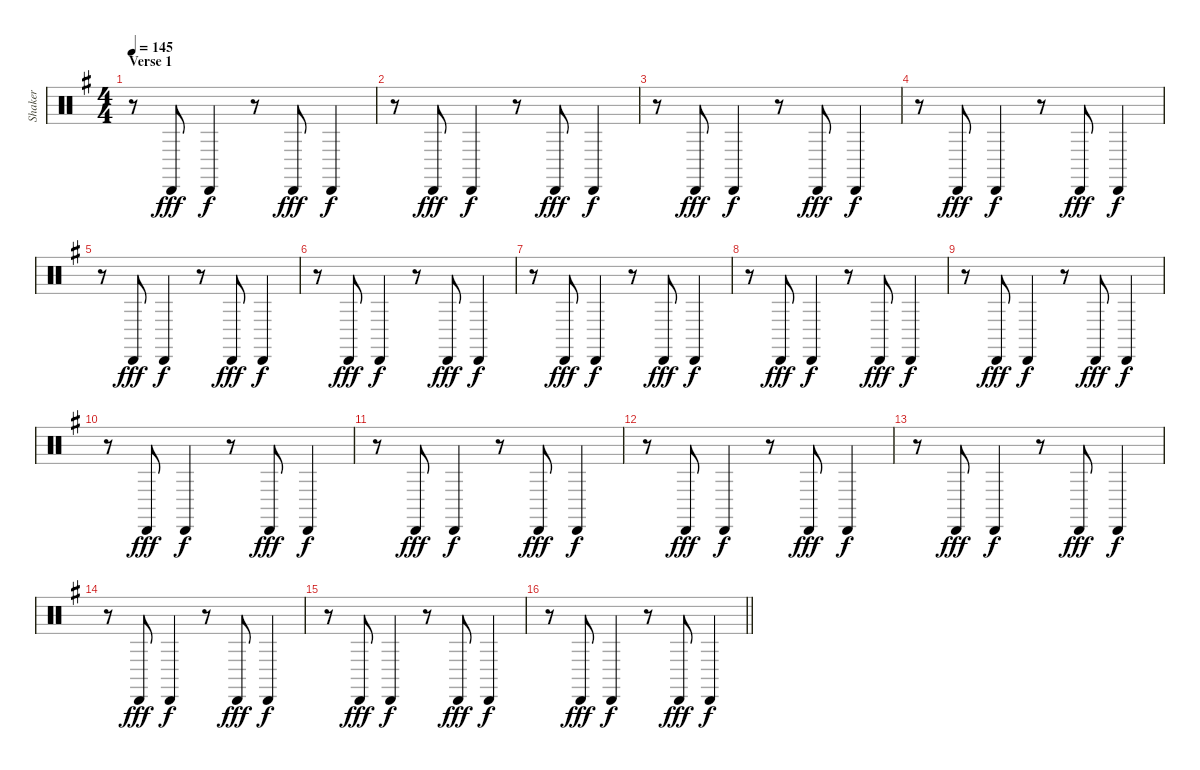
\track ("Shaker" "Shaker") {instrument percussion}
\staff {score}
\articulation defaults
\ts (4 4)
\section ("" "Verse 1")
\tempo 145
\clef neutral
\ks g
r.8{dy f} "Cabasa (hit)".8{dy fff} "Cabasa (hit)".4{dy f} r.8 "Cabasa (hit)".8{dy fff} "Cabasa (hit)".4{dy f} |
r.8 "Cabasa (hit)".8{dy fff} "Cabasa (hit)".4{dy f} r.8 "Cabasa (hit)".8{dy fff} "Cabasa (hit)".4{dy f} |
r.8 "Cabasa (hit)".8{dy fff} "Cabasa (hit)".4{dy f} r.8 "Cabasa (hit)".8{dy fff} "Cabasa (hit)".4{dy f} |
r.8 "Cabasa (hit)".8{dy fff} "Cabasa (hit)".4{dy f} r.8 "Cabasa (hit)".8{dy fff} "Cabasa (hit)".4{dy f} |
r.8 "Cabasa (hit)".8{dy fff} "Cabasa (hit)".4{dy f} r.8 "Cabasa (hit)".8{dy fff} "Cabasa (hit)".4{dy f} |
r.8 "Cabasa (hit)".8{dy fff} "Cabasa (hit)".4{dy f} r.8 "Cabasa (hit)".8{dy fff} "Cabasa (hit)".4{dy f} |
r.8 "Cabasa (hit)".8{dy fff} "Cabasa (hit)".4{dy f} r.8 "Cabasa (hit)".8{dy fff} "Cabasa (hit)".4{dy f} |
r.8 "Cabasa (hit)".8{dy fff} "Cabasa (hit)".4{dy f} r.8 "Cabasa (hit)".8{dy fff} "Cabasa (hit)".4{dy f} |
r.8 "Cabasa (hit)".8{dy fff} "Cabasa (hit)".4{dy f} r.8 "Cabasa (hit)".8{dy fff} "Cabasa (hit)".4{dy f} |
r.8 "Cabasa (hit)".8{dy fff} "Cabasa (hit)".4{dy f} r.8 "Cabasa (hit)".8{dy fff} "Cabasa (hit)".4{dy f} |
r.8 "Cabasa (hit)".8{dy fff} "Cabasa (hit)".4{dy f} r.8 "Cabasa (hit)".8{dy fff} "Cabasa (hit)".4{dy f} |
r.8 "Cabasa (hit)".8{dy fff} "Cabasa (hit)".4{dy f} r.8 "Cabasa (hit)".8{dy fff} "Cabasa (hit)".4{dy f} |
r.8 "Cabasa (hit)".8{dy fff} "Cabasa (hit)".4{dy f} r.8 "Cabasa (hit)".8{dy fff} "Cabasa (hit)".4{dy f} |
r.8 "Cabasa (hit)".8{dy fff} "Cabasa (hit)".4{dy f} r.8 "Cabasa (hit)".8{dy fff} "Cabasa (hit)".4{dy f} |
r.8 "Cabasa (hit)".8{dy fff} "Cabasa (hit)".4{dy f} r.8 "Cabasa (hit)".8{dy fff} "Cabasa (hit)".4{dy f} |
\barLineRight lightlight
r.8 "Cabasa (hit)".8{dy fff} "Cabasa (hit)".4{dy f} r.8 "Cabasa (hit)".8{dy fff} "Cabasa (hit)".4{dy f}
